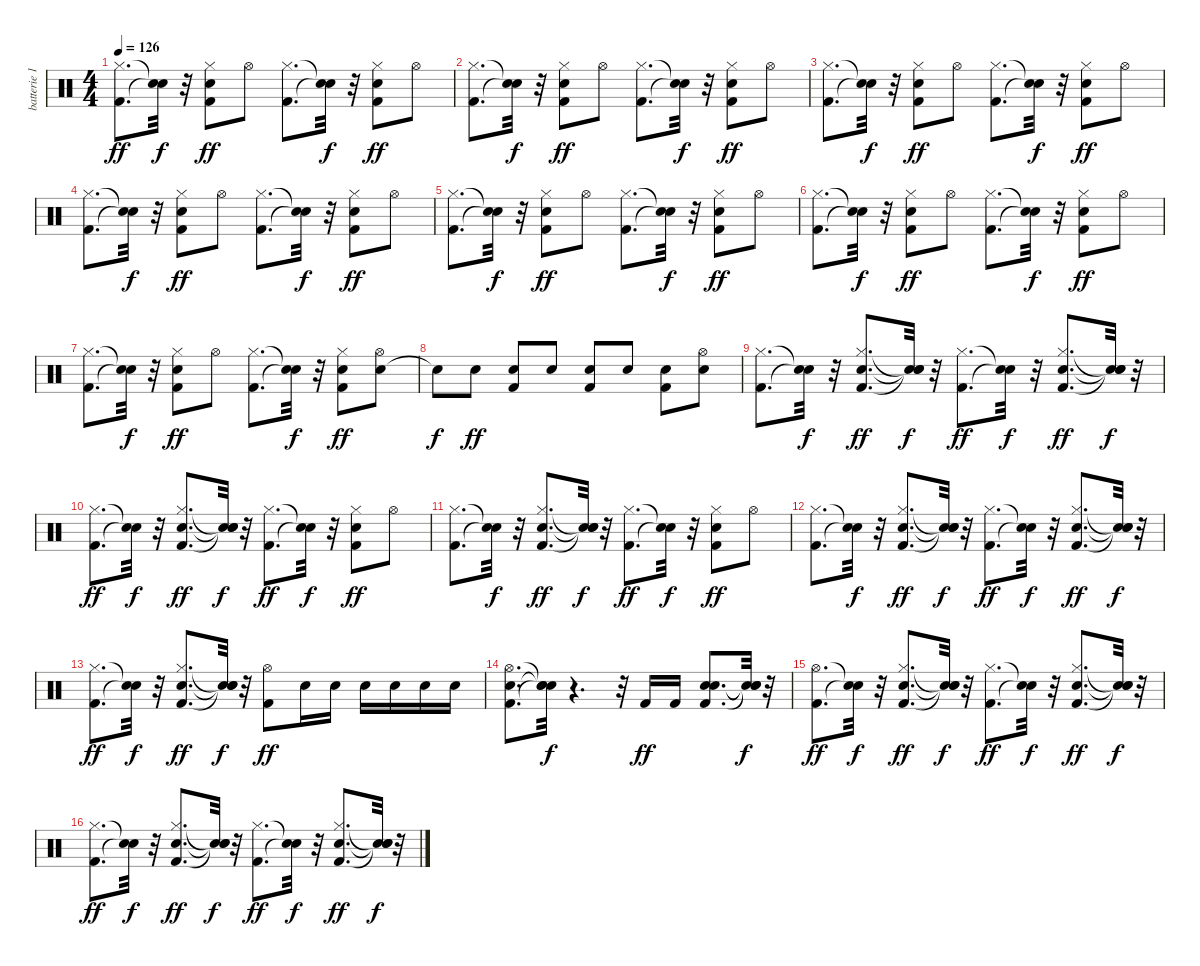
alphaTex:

\track ("batterie 1" "batterie 1") {instrument percussion}
\staff {score}
\articulation defaults
\ts (4 4)
\tempo 126
\clef neutral
\ks c
("Kick (hit) 2" "Hi-Hat (closed)").8{d dy ff} ("Snare (hit)"{t} "Snare (hit)"{t}).32{dy f} r.32 ("Kick (hit) 2" "Snare (hit) 2" "Hi-Hat (closed)").8{dy ff} "Hi-Hat (open)".8 ("Kick (hit) 2" "Hi-Hat (closed)").8{d} ("Snare (hit)"{t} "Snare (hit)"{t}).32{dy f} r.32 ("Kick (hit) 2" "Snare (hit) 2" "Hi-Hat (closed)").8{dy ff} "Hi-Hat (open)".8 |
("Kick (hit) 2" "Hi-Hat (closed)").8{d} ("Snare (hit)"{t} "Snare (hit)"{t}).32{dy f} r.32 ("Kick (hit) 2" "Snare (hit) 2" "Hi-Hat (closed)").8{dy ff} "Hi-Hat (open)".8 ("Kick (hit) 2" "Hi-Hat (closed)").8{d} ("Snare (hit)"{t} "Snare (hit)"{t}).32{dy f} r.32 ("Kick (hit) 2" "Snare (hit) 2" "Hi-Hat (closed)").8{dy ff} "Hi-Hat (open)".8 |
("Kick (hit) 2" "Hi-Hat (closed)").8{d} ("Snare (hit)"{t} "Snare (hit)"{t}).32{dy f} r.32 ("Kick (hit) 2" "Snare (hit) 2" "Hi-Hat (closed)").8{dy ff} "Hi-Hat (open)".8 ("Kick (hit) 2" "Hi-Hat (closed)").8{d} ("Snare (hit)"{t} "Snare (hit)"{t}).32{dy f} r.32 ("Kick (hit) 2" "Snare (hit) 2" "Hi-Hat (closed)").8{dy ff} "Hi-Hat (open)".8 |
("Kick (hit) 2" "Hi-Hat (closed)").8{d} ("Snare (hit)"{t} "Snare (hit)"{t}).32{dy f} r.32 ("Kick (hit) 2" "Snare (hit) 2" "Hi-Hat (closed)").8{dy ff} "Hi-Hat (open)".8 ("Kick (hit) 2" "Hi-Hat (closed)").8{d} ("Snare (hit)"{t} "Snare (hit)"{t}).32{dy f} r.32 ("Kick (hit) 2" "Snare (hit) 2" "Hi-Hat (closed)").8{dy ff} "Hi-Hat (open)".8 |
("Kick (hit) 2" "Hi-Hat (closed)").8{d} ("Snare (hit)"{t} "Snare (hit)"{t}).32{dy f} r.32 ("Kick (hit) 2" "Snare (hit) 2" "Hi-Hat (closed)").8{dy ff} "Hi-Hat (open)".8 ("Kick (hit) 2" "Hi-Hat (closed)").8{d} ("Snare (hit)"{t} "Snare (hit)"{t}).32{dy f} r.32 ("Kick (hit) 2" "Snare (hit) 2" "Hi-Hat (closed)").8{dy ff} "Hi-Hat (open)".8 |
("Kick (hit) 2" "Hi-Hat (closed)").8{d} ("Snare (hit)"{t} "Snare (hit)"{t}).32{dy f} r.32 ("Kick (hit) 2" "Snare (hit) 2" "Hi-Hat (closed)").8{dy ff} "Hi-Hat (open)".8 ("Kick (hit) 2" "Hi-Hat (closed)").8{d} ("Snare (hit)"{t} "Snare (hit)"{t}).32{dy f} r.32 ("Kick (hit) 2" "Snare (hit) 2" "Hi-Hat (closed)").8{dy ff} "Hi-Hat (open)".8 |
("Kick (hit) 2" "Hi-Hat (closed)").8{d} ("Snare (hit)"{t} "Snare (hit)"{t}).32{dy f} r.32 ("Kick (hit) 2" "Snare (hit) 2" "Hi-Hat (closed)").8{dy ff} "Hi-Hat (open)".8 ("Kick (hit) 2" "Hi-Hat (closed)").8{d} ("Snare (hit)"{t} "Snare (hit)"{t}).32{dy f} r.32 ("Kick (hit) 2" "Snare (hit) 2" "Hi-Hat (closed)").8{dy ff} ("Snare (hit) 2" "Hi-Hat (open)").8 |
"Snare (hit)"{t}.8{dy f} "Snare (hit) 2".8{dy ff} ("Kick (hit) 2" "Snare (hit) 2").8 "Snare (hit) 2".8 ("Kick (hit) 2" "Snare (hit) 2").8 "Snare (hit) 2".8 ("Kick (hit) 2" "Snare (hit) 2").8 ("Snare (hit) 2" "Hi-Hat (open)").8 |
("Kick (hit) 2" "Hi-Hat (closed)").8{d} ("Snare (hit)"{t} "Snare (hit)"{t}).32{dy f} r.32 ("Kick (hit) 2" "Snare (hit) 2" "Hi-Hat (closed)").8{d dy ff} ("Snare (hit)"{t} "Snare (hit)"{t} "Snare (hit)"{t}).32{dy f} r.32 ("Kick (hit) 2" "Hi-Hat (closed)").8{d dy ff} ("Snare (hit)"{t} "Snare (hit)"{t}).32{dy f} r.32 ("Kick (hit) 2" "Snare (hit) 2" "Hi-Hat (closed)").8{d dy ff} ("Snare (hit)"{t} "Snare (hit)"{t} "Snare (hit)"{t}).32{dy f} r.32 |
("Kick (hit) 2" "Hi-Hat (closed)").8{d dy ff} ("Snare (hit)"{t} "Snare (hit)"{t}).32{dy f} r.32 ("Kick (hit) 2" "Snare (hit) 2" "Hi-Hat (closed)").8{d dy ff} ("Snare (hit)"{t} "Snare (hit)"{t} "Snare (hit)"{t}).32{dy f} r.32 ("Kick (hit) 2" "Hi-Hat (closed)").8{d dy ff} ("Snare (hit)"{t} "Snare (hit)"{t}).32{dy f} r.32 ("Kick (hit) 2" "Snare (hit) 2" "Hi-Hat (closed)").8{dy ff} "Hi-Hat (open)".8 |
("Kick (hit) 2" "Hi-Hat (closed)").8{d} ("Snare (hit)"{t} "Snare (hit)"{t}).32{dy f} r.32 ("Kick (hit) 2" "Snare (hit) 2" "Hi-Hat (closed)").8{d dy ff} ("Snare (hit)"{t} "Snare (hit)"{t} "Snare (hit)"{t}).32{dy f} r.32 ("Kick (hit) 2" "Hi-Hat (closed)").8{d dy ff} ("Snare (hit)"{t} "Snare (hit)"{t}).32{dy f} r.32 ("Kick (hit) 2" "Snare (hit) 2" "Hi-Hat (closed)").8{dy ff} "Hi-Hat (open)".8 |
("Kick (hit) 2" "Hi-Hat (closed)").8{d} ("Snare (hit)"{t} "Snare (hit)"{t}).32{dy f} r.32 ("Kick (hit) 2" "Snare (hit) 2" "Hi-Hat (closed)").8{d dy ff} ("Snare (hit)"{t} "Snare (hit)"{t} "Snare (hit)"{t}).32{dy f} r.32 ("Kick (hit) 2" "Hi-Hat (closed)").8{d dy ff} ("Snare (hit)"{t} "Snare (hit)"{t}).32{dy f} r.32 ("Kick (hit) 2" "Snare (hit) 2" "Hi-Hat (closed)").8{d dy ff} ("Snare (hit)"{t} "Snare (hit)"{t} "Snare (hit)"{t}).32{dy f} r.32 |
("Kick (hit) 2" "Hi-Hat (closed)").8{d dy ff} ("Snare (hit)"{t} "Snare (hit)"{t}).32{dy f} r.32 ("Kick (hit) 2" "Snare (hit) 2" "Hi-Hat (closed)").8{d dy ff} ("Snare (hit)"{t} "Snare (hit)"{t} "Snare (hit)"{t}).32{dy f} r.32 ("Kick (hit) 2" "Hi-Hat (open)").8{dy ff} "Snare (hit) 2".16 "Snare (hit) 2".16 "Snare (hit) 2".16 "Snare (hit) 2".16 "Snare (hit) 2".16 "Snare (hit) 2".16 |
("Kick (hit) 2" "Snare (hit) 2" "Hi-Hat (open)").8{d} ("Snare (hit)"{t} "Snare (hit)"{t} "Snare (hit)"{t}).32{dy f} r.4{d} r.32 "Kick (hit) 2".16{dy ff} "Kick (hit) 2".16 ("Kick (hit) 2" "Snare (hit) 2" "Electric Snare (hit)").8{d} ("Snare (hit)"{t} "Snare (hit)"{t} "Snare (hit)"{t}).32{dy f} r.32 |
("Kick (hit) 2" "Hi-Hat (open)").8{d dy ff} ("Snare (hit)"{t} "Snare (hit)"{t}).32{dy f} r.32 ("Kick (hit) 2" "Snare (hit) 2" "Hi-Hat (closed)").8{d dy ff} ("Snare (hit)"{t} "Snare (hit)"{t} "Snare (hit)"{t}).32{dy f} r.32 ("Kick (hit) 2" "Hi-Hat (closed)").8{d dy ff} ("Snare (hit)"{t} "Snare (hit)"{t}).32{dy f} r.32 ("Kick (hit) 2" "Snare (hit) 2" "Hi-Hat (closed)").8{d dy ff} ("Snare (hit)"{t} "Snare (hit)"{t} "Snare (hit)"{t}).32{dy f} r.32 |
("Kick (hit) 2" "Hi-Hat (closed)").8{d dy ff} ("Snare (hit)"{t} "Snare (hit)"{t}).32{dy f} r.32 ("Kick (hit) 2" "Snare (hit) 2" "Hi-Hat (closed)").8{d dy ff} ("Snare (hit)"{t} "Snare (hit)"{t} "Snare (hit)"{t}).32{dy f} r.32 ("Kick (hit) 2" "Hi-Hat (closed)").8{d dy ff} ("Snare (hit)"{t} "Snare (hit)"{t}).32{dy f} r.32 ("Kick (hit) 2" "Snare (hit) 2" "Hi-Hat (closed)").8{d dy ff} ("Snare (hit)"{t} "Snare (hit)"{t} "Snare (hit)"{t}).32{dy f} r.32
